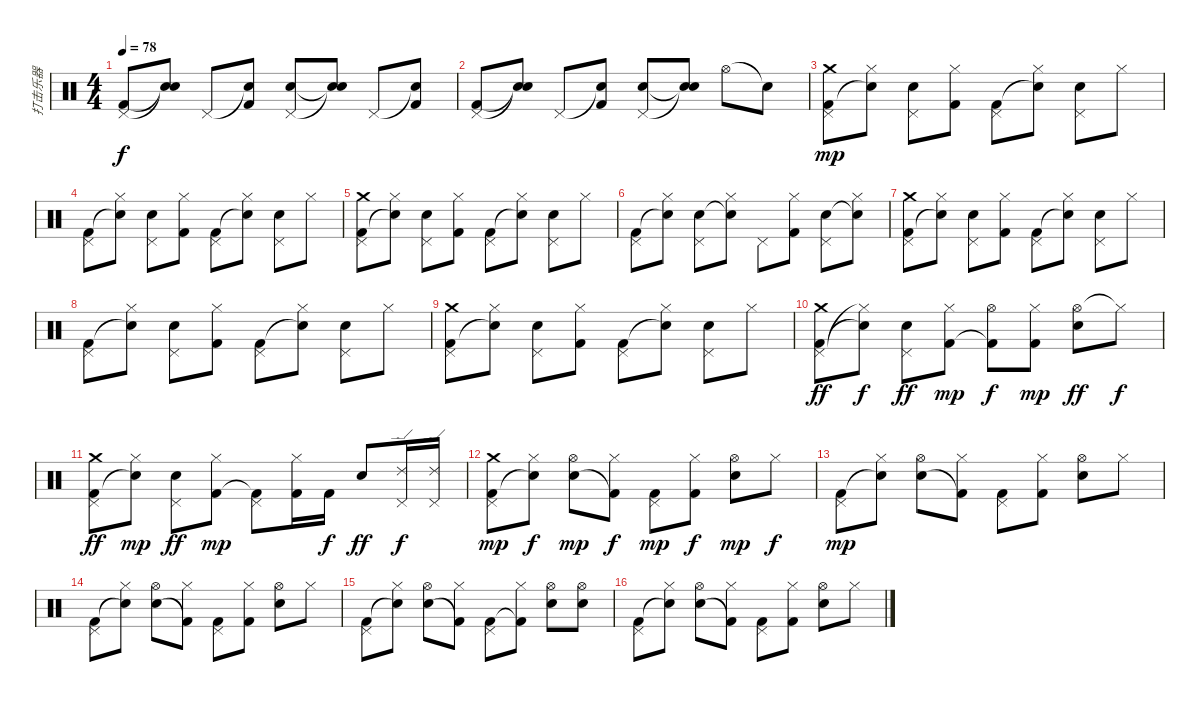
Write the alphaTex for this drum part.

\track ("打击乐器" "打击乐器") {instrument percussion}
\staff {score}
\articulation defaults
\ts (4 4)
\tempo 78
\clef neutral
\ks c
("Pedal Hi-Hat (hit)" "Kick (hit) 2").8{dy f} ("Snare (hit)"{t} "Snare (hit)"{t}).8 "Pedal Hi-Hat (hit)".8 ("Snare (hit)"{t} "Kick (hit) 2").8 ("Pedal Hi-Hat (hit)" "Electric Snare (hit)").8 ("Snare (hit)"{t} "Snare (hit)"{t}).8 "Pedal Hi-Hat (hit)".8 ("Snare (hit)"{t} "Kick (hit) 2").8 |
("Pedal Hi-Hat (hit)" "Kick (hit) 2").8 ("Snare (hit)"{t} "Snare (hit)"{t}).8 "Pedal Hi-Hat (hit)".8 ("Snare (hit)"{t} "Kick (hit) 2").8 ("Pedal Hi-Hat (hit)" "Electric Snare (hit)").8 ("Snare (hit)"{t} "Snare (hit)"{t}).8 "Hi-Hat (open)".8 "Snare (hit)"{t}.8 |
("Pedal Hi-Hat (hit)" "Kick (hit) 2" "Crash medium (hit)").8{dy mp} ("Hi-Hat (closed)" "Snare (hit)"{t}).8 ("Pedal Hi-Hat (hit)" "Electric Snare (hit)").8 ("Hi-Hat (closed)" "Kick (hit) 2").8 ("Pedal Hi-Hat (hit)" "Kick (hit) 2").8 ("Hi-Hat (closed)" "Snare (hit)"{t}).8 ("Pedal Hi-Hat (hit)" "Electric Snare (hit)").8 "Hi-Hat (closed)".8 |
("Pedal Hi-Hat (hit)" "Kick (hit) 2").8 ("Hi-Hat (closed)" "Snare (hit)"{t}).8 ("Pedal Hi-Hat (hit)" "Electric Snare (hit)").8 ("Hi-Hat (closed)" "Kick (hit) 2").8 ("Pedal Hi-Hat (hit)" "Kick (hit) 2").8 ("Hi-Hat (closed)" "Snare (hit)"{t}).8 ("Pedal Hi-Hat (hit)" "Electric Snare (hit)").8 "Hi-Hat (closed)".8 |
("Pedal Hi-Hat (hit)" "Kick (hit) 2" "Crash medium (hit)").8 ("Hi-Hat (closed)" "Snare (hit)"{t}).8 ("Pedal Hi-Hat (hit)" "Electric Snare (hit)").8 ("Hi-Hat (closed)" "Kick (hit) 2").8 ("Pedal Hi-Hat (hit)" "Kick (hit) 2").8 ("Hi-Hat (closed)" "Snare (hit)"{t}).8 ("Pedal Hi-Hat (hit)" "Electric Snare (hit)").8 "Hi-Hat (closed)".8 |
("Pedal Hi-Hat (hit)" "Kick (hit) 2").8 ("Hi-Hat (closed)" "Snare (hit)"{t}).8 ("Pedal Hi-Hat (hit)" "Electric Snare (hit)").8 ("Hi-Hat (closed)" "Electric Snare (hit)"{t}).8 "Pedal Hi-Hat (hit)".8 ("Hi-Hat (closed)" "Kick (hit) 2").8 ("Pedal Hi-Hat (hit)" "Electric Snare (hit)").8 ("Hi-Hat (closed)" "Snare (hit)"{t}).8 |
("Pedal Hi-Hat (hit)" "Kick (hit) 2" "Crash medium (hit)").8 ("Hi-Hat (closed)" "Snare (hit)"{t}).8 ("Pedal Hi-Hat (hit)" "Electric Snare (hit)").8 ("Hi-Hat (closed)" "Kick (hit) 2").8 ("Pedal Hi-Hat (hit)" "Kick (hit) 2").8 ("Hi-Hat (closed)" "Snare (hit)"{t}).8 ("Pedal Hi-Hat (hit)" "Electric Snare (hit)").8 "Hi-Hat (closed)".8 |
("Pedal Hi-Hat (hit)" "Kick (hit) 2").8 ("Hi-Hat (closed)" "Snare (hit)"{t}).8 ("Pedal Hi-Hat (hit)" "Electric Snare (hit)").8 ("Hi-Hat (closed)" "Kick (hit) 2").8 ("Pedal Hi-Hat (hit)" "Kick (hit) 2").8 ("Hi-Hat (closed)" "Snare (hit)"{t}).8 ("Pedal Hi-Hat (hit)" "Electric Snare (hit)").8 "Hi-Hat (closed)".8 |
("Pedal Hi-Hat (hit)" "Kick (hit) 2" "Crash medium (hit)").8 ("Hi-Hat (closed)" "Snare (hit)"{t}).8 ("Pedal Hi-Hat (hit)" "Electric Snare (hit)").8 ("Hi-Hat (closed)" "Kick (hit) 2").8 ("Pedal Hi-Hat (hit)" "Kick (hit) 2").8 ("Hi-Hat (closed)" "Snare (hit)"{t}).8 ("Pedal Hi-Hat (hit)" "Electric Snare (hit)").8 "Hi-Hat (closed)".8 |
("Pedal Hi-Hat (hit)" "Kick (hit) 2" "Crash medium (hit)").8{dy ff} ("Hi-Hat (closed)"{t} "Snare (hit)"{t}).8{dy f} ("Pedal Hi-Hat (hit)" "Electric Snare (hit)").8{dy ff} ("Hi-Hat (closed)" "Kick (hit) 2").8{dy mp} ("Hi-Hat (open)" "Kick (hit) 2"{t}).8{dy f} ("Hi-Hat (closed)" "Kick (hit) 2").8{dy mp} ("Hi-Hat (open)" "Electric Snare (hit)").8{dy ff} "Hi-Hat (closed)"{t}.8{dy f} |
("Pedal Hi-Hat (hit)" "Kick (hit) 2" "Crash medium (hit)").8{dy ff} ("Hi-Hat (closed)" "Snare (hit)"{t}).8{dy mp} ("Pedal Hi-Hat (hit)" "Electric Snare (hit)").8{dy ff} ("Hi-Hat (closed)" "Kick (hit) 2").8{dy mp} ("Pedal Hi-Hat (hit)" "Kick (hit) 2"{t}).8 ("Hi-Hat (closed)" "Kick (hit) 2").16 "Kick (hit) 2".16{dy f} "Electric Snare (hit)".8{dy ff} ("Pedal Hi-Hat (hit)" "Ride (edge) 2").16{dy f} ("Pedal Hi-Hat (hit)" "Ride (edge) 2").16 |
("Pedal Hi-Hat (hit)" "Kick (hit) 2" "Crash medium (hit)").8{dy mp} ("Hi-Hat (closed)" "Snare (hit)"{t}).8{dy f} ("Hi-Hat (open)" "Electric Snare (hit)").8{dy mp} ("Hi-Hat (closed)" "Kick (hit) 2"{t}).8{dy f} ("Pedal Hi-Hat (hit)" "Kick (hit) 2").8{dy mp} ("Hi-Hat (closed)" "Kick (hit) 2").8{dy f} ("Hi-Hat (open)" "Electric Snare (hit)").8{dy mp} "Hi-Hat (closed)".8{dy f} |
("Pedal Hi-Hat (hit)" "Kick (hit) 2").8{dy mp} ("Hi-Hat (closed)" "Snare (hit)"{t}).8 ("Hi-Hat (open)" "Electric Snare (hit)").8 ("Hi-Hat (closed)" "Kick (hit) 2"{t}).8 ("Pedal Hi-Hat (hit)" "Kick (hit) 2").8 ("Hi-Hat (closed)" "Kick (hit) 2").8 ("Hi-Hat (open)" "Electric Snare (hit)").8 "Hi-Hat (closed)".8 |
("Pedal Hi-Hat (hit)" "Kick (hit) 2").8 ("Hi-Hat (closed)" "Snare (hit)"{t}).8 ("Hi-Hat (open)" "Electric Snare (hit)").8 ("Hi-Hat (closed)" "Kick (hit) 2"{t}).8 ("Pedal Hi-Hat (hit)" "Kick (hit) 2").8 ("Hi-Hat (closed)" "Kick (hit) 2").8 ("Hi-Hat (open)" "Electric Snare (hit)").8 "Hi-Hat (closed)".8 |
("Pedal Hi-Hat (hit)" "Kick (hit) 2").8 ("Hi-Hat (closed)" "Snare (hit)"{t}).8 ("Hi-Hat (open)" "Electric Snare (hit)").8 ("Hi-Hat (closed)" "Kick (hit) 2"{t}).8 ("Pedal Hi-Hat (hit)" "Kick (hit) 2").8 ("Hi-Hat (closed)" "Kick (hit) 2"{t}).8 ("Hi-Hat (open)" "Electric Snare (hit)").8 ("Hi-Hat (open)" "Electric Snare (hit)").8 |
("Pedal Hi-Hat (hit)" "Kick (hit) 2").8 ("Hi-Hat (closed)" "Snare (hit)"{t}).8 ("Hi-Hat (open)" "Electric Snare (hit)").8 ("Hi-Hat (closed)" "Kick (hit) 2"{t}).8 ("Pedal Hi-Hat (hit)" "Kick (hit) 2").8 ("Hi-Hat (closed)" "Kick (hit) 2").8 ("Hi-Hat (open)" "Electric Snare (hit)").8 "Hi-Hat (closed)".8
